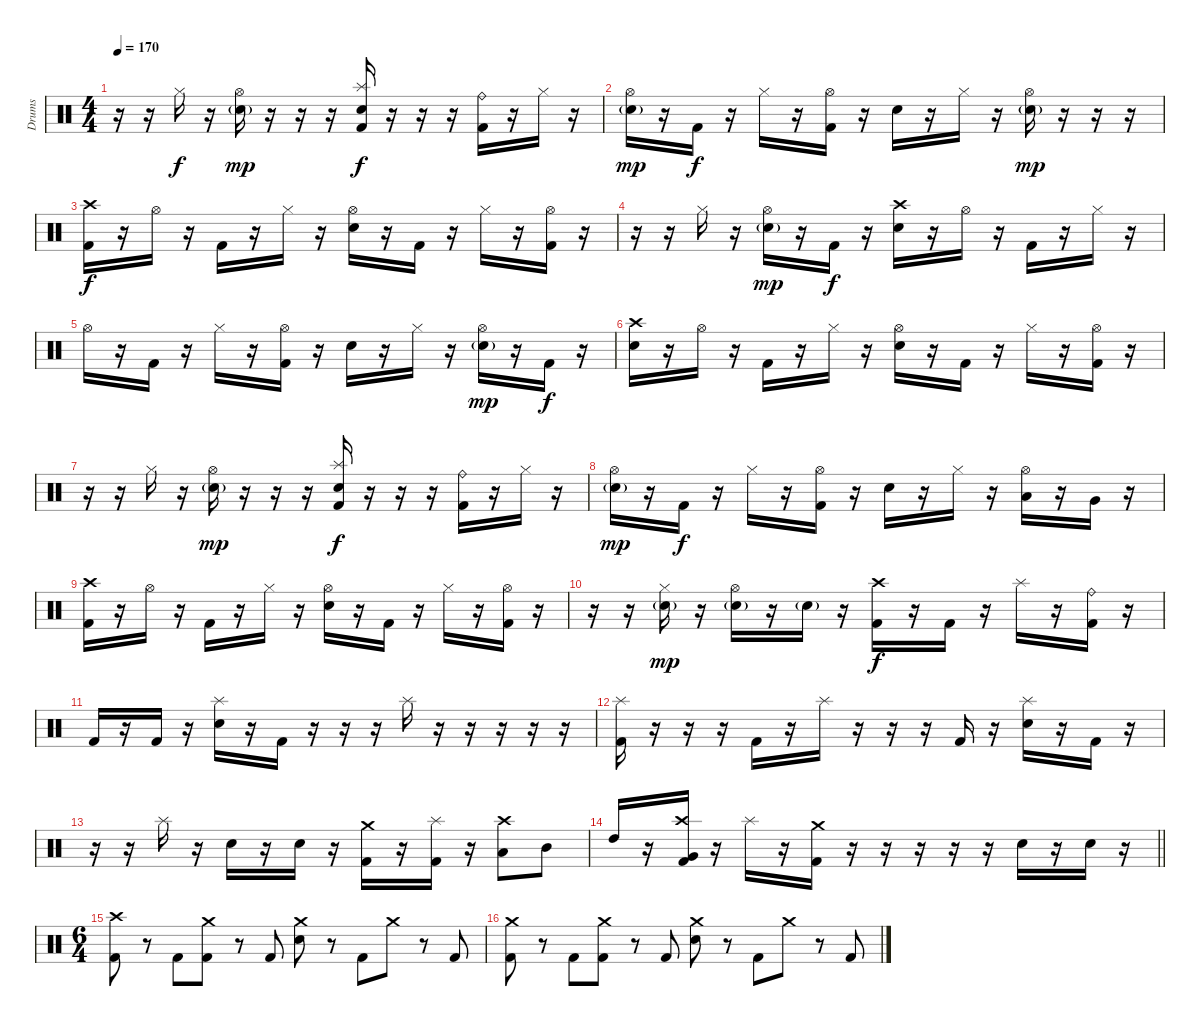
\track ("Drums" "Drums") {instrument percussion}
\staff {score}
\articulation defaults
\ts (4 4)
\tempo 170
\clef neutral
\ks c
r.16{dy f} r.16 "Hi-Hat (closed)".16 r.16 ("Hi-Hat (open)" "Electric Snare (hit)"{g}).16{dy mp} r.16 r.16 r.16 ("Splash (hit)" "Electric Snare (hit)" "Kick (hit) 2").16{dy f} r.16 r.16 r.16 ("Ride (bell)" "Kick (hit) 2").16 r.16 "Hi-Hat (closed)".16 r.16 |
("Hi-Hat (open)" "Electric Snare (hit)"{g}).16{dy mp} r.16 "Kick (hit) 2".16{dy f} r.16 "Hi-Hat (closed)".16 r.16 ("Hi-Hat (open)" "Kick (hit) 2").16 r.16 "Electric Snare (hit)".16 r.16 "Hi-Hat (closed)".16 r.16 ("Hi-Hat (open)" "Electric Snare (hit)"{g}).16{dy mp} r.16 r.16 r.16 |
("Crash high (hit)" "Kick (hit) 2").16{dy f} r.16 "Hi-Hat (open)".16 r.16 "Kick (hit) 2".16 r.16 "Hi-Hat (closed)".16 r.16 ("Hi-Hat (open)" "Electric Snare (hit)").16 r.16 "Kick (hit) 2".16 r.16 "Hi-Hat (closed)".16 r.16 ("Hi-Hat (open)" "Kick (hit) 2").16 r.16 |
r.16 r.16 "Hi-Hat (closed)".16 r.16 ("Hi-Hat (open)" "Electric Snare (hit)"{g}).16{dy mp} r.16 "Kick (hit) 2".16{dy f} r.16 ("Crash high (hit)" "Electric Snare (hit)").16 r.16 "Hi-Hat (open)".16 r.16 "Kick (hit) 2".16 r.16 "Hi-Hat (closed)".16 r.16 |
"Hi-Hat (open)".16 r.16 "Kick (hit) 2".16 r.16 "Hi-Hat (closed)".16 r.16 ("Hi-Hat (open)" "Kick (hit) 2").16 r.16 "Electric Snare (hit)".16 r.16 "Hi-Hat (closed)".16 r.16 ("Hi-Hat (open)" "Electric Snare (hit)"{g}).16{dy mp} r.16 "Kick (hit) 2".16{dy f} r.16 |
("Crash high (hit)" "Electric Snare (hit)").16 r.16 "Hi-Hat (open)".16 r.16 "Kick (hit) 2".16 r.16 "Hi-Hat (closed)".16 r.16 ("Hi-Hat (open)" "Electric Snare (hit)").16 r.16 "Kick (hit) 2".16 r.16 "Hi-Hat (closed)".16 r.16 ("Hi-Hat (open)" "Kick (hit) 2").16 r.16 |
r.16 r.16 "Hi-Hat (closed)".16 r.16 ("Hi-Hat (open)" "Electric Snare (hit)"{g}).16{dy mp} r.16 r.16 r.16 ("Splash (hit)" "Electric Snare (hit)" "Kick (hit) 2").16{dy f} r.16 r.16 r.16 ("Ride (bell)" "Kick (hit) 2").16 r.16 "Hi-Hat (closed)".16 r.16 |
("Hi-Hat (open)" "Electric Snare (hit)"{g}).16{dy mp} r.16 "Kick (hit) 2".16{dy f} r.16 "Hi-Hat (closed)".16 r.16 ("Hi-Hat (open)" "Kick (hit) 2").16 r.16 "Electric Snare (hit)".16 r.16 "Hi-Hat (closed)".16 r.16 ("Hi-Hat (open)" "Low Tom (hit)").16 r.16 "Very Low Tom (hit)".16 r.16 |
("Crash high (hit)" "Kick (hit) 2").16 r.16 "Hi-Hat (open)".16 r.16 "Kick (hit) 2".16 r.16 "Hi-Hat (closed)".16 r.16 ("Hi-Hat (open)" "Electric Snare (hit)").16 r.16 "Kick (hit) 2".16 r.16 "Hi-Hat (closed)".16 r.16 ("Hi-Hat (open)" "Kick (hit) 2").16 r.16 |
r.16 r.16 ("Hi-Hat (closed)" "Electric Snare (hit)"{g}).16{dy mp} r.16 ("Hi-Hat (open)" "Electric Snare (hit)"{g}).16 r.16 "Electric Snare (hit)"{g}.16 r.16 ("Crash high (hit)" "Kick (hit) 2").16{dy f} r.16 "Kick (hit) 2".16 r.16 "Splash (hit)".16 r.16 ("Ride (bell)" "Kick (hit) 2").16 r.16 |
"Kick (hit) 2".16 r.16 "Kick (hit) 2".16 r.16 ("Splash (hit)" "Electric Snare (hit)").16 r.16 "Kick (hit) 2".16 r.16 r.16 r.16 "Splash (hit)".16 r.16 r.16 r.16 r.16 r.16 |
("Splash (hit)" "Kick (hit) 2").16 r.16 r.16 r.16 "Kick (hit) 2".16 r.16 "Splash (hit)".16 r.16 r.16 r.16 "Kick (hit) 2".16 r.16 ("Splash (hit)" "Electric Snare (hit)").16 r.16 "Kick (hit) 2".16 r.16 |
r.16 r.16 "Splash (hit)".16 r.16 "Electric Snare (hit)".16 r.16 "Electric Snare (hit)".16 r.16 ("Crash medium (hit)" "Kick (hit) 2").16 r.16 ("Splash (hit)" "Kick (hit) 2").16 r.16 ("Crash high (hit)" "Low Tom (hit)").8 "Mid Tom (hit)".8 |
\barLineRight lightlight "High Tom (hit)".16
r.16 ("Crash high (hit)" "Very Low Tom (hit)" "Kick (hit) 2").16 r.16 "Splash (hit)".16 r.16 ("Crash medium (hit)" "Kick (hit) 2").16 r.16 r.16 r.16 r.16 r.16 "Electric Snare (hit)".16 r.16 "Electric Snare (hit)".16 r.16 |
\ts (6 4)
\section ("" "")
("Crash high (hit)" "Kick (hit) 2").8 r.8 "Kick (hit) 2".8 ("Crash medium (hit)" "Kick (hit) 2").8 r.8 "Kick (hit) 2".8 ("Crash medium (hit)" "Electric Snare (hit)").8 r.8 "Kick (hit) 2".8 "Crash medium (hit)".8 r.8 "Kick (hit) 2".8 |
("Crash medium (hit)" "Kick (hit) 2").8 r.8 "Kick (hit) 2".8 ("Crash medium (hit)" "Kick (hit) 2").8 r.8 "Kick (hit) 2".8 ("Crash medium (hit)" "Electric Snare (hit)").8 r.8 "Kick (hit) 2".8 "Crash medium (hit)".8 r.8 "Kick (hit) 2".8
